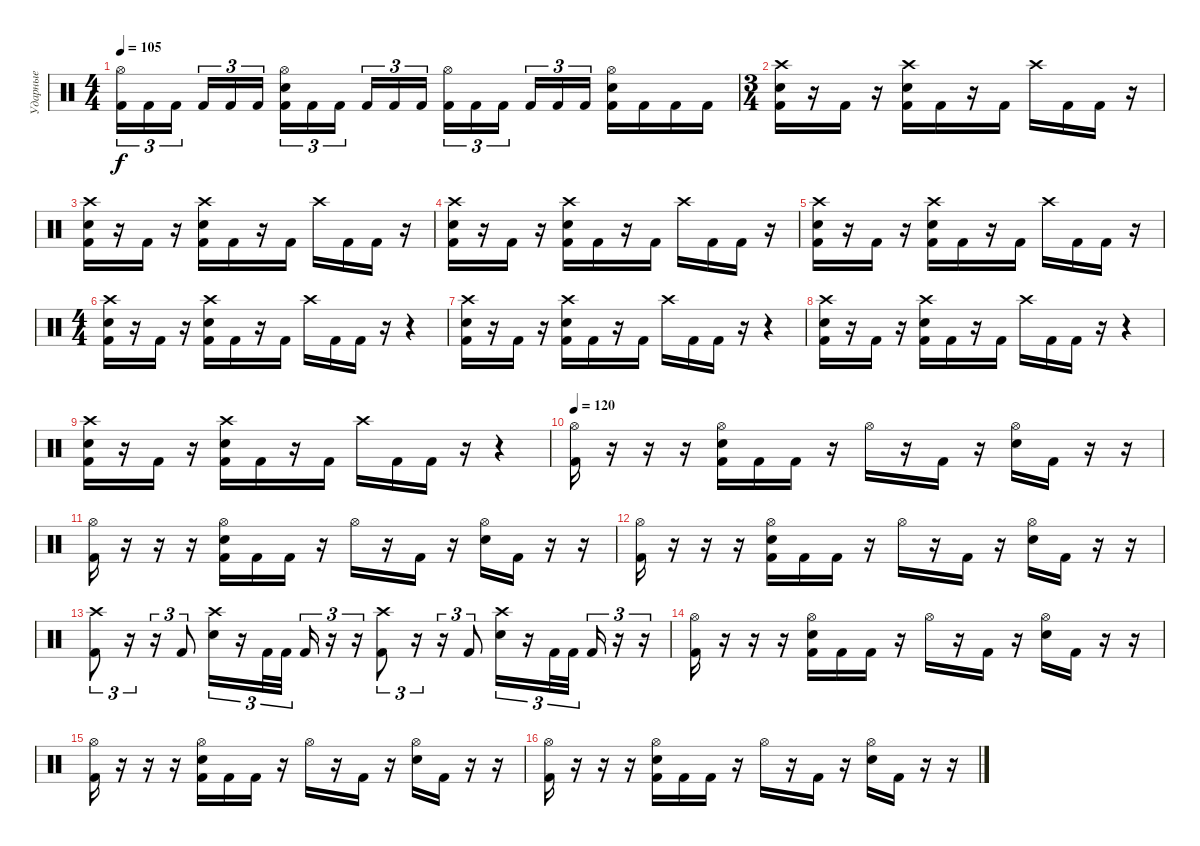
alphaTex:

\track ("Ударные" "Ударные") {instrument percussion}
\staff {score}
\articulation defaults
\ts (4 4)
\tempo 105
\clef neutral
\ks c
("Hi-Hat (open)" "Kick (hit) 2").16{tu (3 2) dy f} "Kick (hit) 2".16{tu (3 2)} "Kick (hit) 2".16{tu (3 2) beam splitsecondary} "Kick (hit) 2".16{tu (3 2)} "Kick (hit) 2".16{tu (3 2)} "Kick (hit) 2".16{tu (3 2)} ("Hi-Hat (open)" "Electric Snare (hit)" "Kick (hit) 2").16{tu (3 2)} "Kick (hit) 2".16{tu (3 2)} "Kick (hit) 2".16{tu (3 2) beam splitsecondary} "Kick (hit) 2".16{tu (3 2)} "Kick (hit) 2".16{tu (3 2)} "Kick (hit) 2".16{tu (3 2)} ("Hi-Hat (open)" "Kick (hit) 2").16{tu (3 2)} "Kick (hit) 2".16{tu (3 2)} "Kick (hit) 2".16{tu (3 2) beam splitsecondary} "Kick (hit) 2".16{tu (3 2)} "Kick (hit) 2".16{tu (3 2)} "Kick (hit) 2".16{tu (3 2)} ("Hi-Hat (open)" "Electric Snare (hit)" "Kick (hit) 2").16 "Kick (hit) 2".16 "Kick (hit) 2".16 "Kick (hit) 2".16 |
\ts (3 4)
("Crash high (hit)" "Electric Snare (hit)" "Kick (hit) 2").16 r.16 "Kick (hit) 2".16 r.16 ("Crash high (hit)" "Electric Snare (hit)" "Kick (hit) 2").16 "Kick (hit) 2".16 r.16 "Kick (hit) 2".16 "Crash high (hit)".16 "Kick (hit) 2".16 "Kick (hit) 2".16 r.16 |
("Crash high (hit)" "Electric Snare (hit)" "Kick (hit) 2").16 r.16 "Kick (hit) 2".16 r.16 ("Crash high (hit)" "Electric Snare (hit)" "Kick (hit) 2").16 "Kick (hit) 2".16 r.16 "Kick (hit) 2".16 "Crash high (hit)".16 "Kick (hit) 2".16 "Kick (hit) 2".16 r.16 |
("Crash high (hit)" "Electric Snare (hit)" "Kick (hit) 2").16 r.16 "Kick (hit) 2".16 r.16 ("Crash high (hit)" "Electric Snare (hit)" "Kick (hit) 2").16 "Kick (hit) 2".16 r.16 "Kick (hit) 2".16 "Crash high (hit)".16 "Kick (hit) 2".16 "Kick (hit) 2".16 r.16 |
("Crash high (hit)" "Electric Snare (hit)" "Kick (hit) 2").16 r.16 "Kick (hit) 2".16 r.16 ("Crash high (hit)" "Electric Snare (hit)" "Kick (hit) 2").16 "Kick (hit) 2".16 r.16 "Kick (hit) 2".16 "Crash high (hit)".16 "Kick (hit) 2".16 "Kick (hit) 2".16 r.16 |
\ts (4 4)
("Crash high (hit)" "Electric Snare (hit)" "Kick (hit) 2").16 r.16 "Kick (hit) 2".16 r.16 ("Crash high (hit)" "Electric Snare (hit)" "Kick (hit) 2").16 "Kick (hit) 2".16 r.16 "Kick (hit) 2".16 "Crash high (hit)".16 "Kick (hit) 2".16 "Kick (hit) 2".16 r.16 r.4 |
("Crash high (hit)" "Electric Snare (hit)" "Kick (hit) 2").16 r.16 "Kick (hit) 2".16 r.16 ("Crash high (hit)" "Electric Snare (hit)" "Kick (hit) 2").16 "Kick (hit) 2".16 r.16 "Kick (hit) 2".16 "Crash high (hit)".16 "Kick (hit) 2".16 "Kick (hit) 2".16 r.16 r.4 |
("Crash high (hit)" "Electric Snare (hit)" "Kick (hit) 2").16 r.16 "Kick (hit) 2".16 r.16 ("Crash high (hit)" "Electric Snare (hit)" "Kick (hit) 2").16 "Kick (hit) 2".16 r.16 "Kick (hit) 2".16 "Crash high (hit)".16 "Kick (hit) 2".16 "Kick (hit) 2".16 r.16 r.4 |
("Crash high (hit)" "Electric Snare (hit)" "Kick (hit) 2").16 r.16 "Kick (hit) 2".16 r.16 ("Crash high (hit)" "Electric Snare (hit)" "Kick (hit) 2").16 "Kick (hit) 2".16 r.16 "Kick (hit) 2".16 "Crash high (hit)".16 "Kick (hit) 2".16 "Kick (hit) 2".16 r.16 r.4 |
\tempo 120
("Hi-Hat (open)" "Kick (hit) 2").16 r.16 r.16 r.16 ("Hi-Hat (open)" "Electric Snare (hit)" "Kick (hit) 2").16 "Kick (hit) 2".16 "Kick (hit) 2".16 r.16 "Hi-Hat (open)".16 r.16 "Kick (hit) 2".16 r.16 ("Hi-Hat (open)" "Electric Snare (hit)").16 "Kick (hit) 2".16 r.16 r.16 |
("Hi-Hat (open)" "Kick (hit) 2").16 r.16 r.16 r.16 ("Hi-Hat (open)" "Electric Snare (hit)" "Kick (hit) 2").16 "Kick (hit) 2".16 "Kick (hit) 2".16 r.16 "Hi-Hat (open)".16 r.16 "Kick (hit) 2".16 r.16 ("Hi-Hat (open)" "Electric Snare (hit)").16 "Kick (hit) 2".16 r.16 r.16 |
("Hi-Hat (open)" "Kick (hit) 2").16 r.16 r.16 r.16 ("Hi-Hat (open)" "Electric Snare (hit)" "Kick (hit) 2").16 "Kick (hit) 2".16 "Kick (hit) 2".16 r.16 "Hi-Hat (open)".16 r.16 "Kick (hit) 2".16 r.16 ("Hi-Hat (open)" "Electric Snare (hit)").16 "Kick (hit) 2".16 r.16 r.16 |
("Crash high (hit)" "Kick (hit) 2").8{tu (3 2)} r.16{tu (3 2)} r.16{tu (3 2)} "Kick (hit) 2".8{tu (3 2)} ("Crash high (hit)" "Electric Snare (hit)").16{tu (3 2)} r.16{tu (3 2)} "Kick (hit) 2".32{tu (3 2)} "Kick (hit) 2".32{tu (3 2) beam splitsecondary} "Kick (hit) 2".16{tu (3 2)} r.16{tu (3 2)} r.16{tu (3 2)} ("Crash high (hit)" "Kick (hit) 2").8{tu (3 2)} r.16{tu (3 2)} r.16{tu (3 2)} "Kick (hit) 2".8{tu (3 2)} ("Crash high (hit)" "Electric Snare (hit)").16{tu (3 2)} r.16{tu (3 2)} "Kick (hit) 2".32{tu (3 2)} "Kick (hit) 2".32{tu (3 2) beam splitsecondary} "Kick (hit) 2".16{tu (3 2)} r.16{tu (3 2)} r.16{tu (3 2)} |
("Hi-Hat (open)" "Kick (hit) 2").16 r.16 r.16 r.16 ("Hi-Hat (open)" "Electric Snare (hit)" "Kick (hit) 2").16 "Kick (hit) 2".16 "Kick (hit) 2".16 r.16 "Hi-Hat (open)".16 r.16 "Kick (hit) 2".16 r.16 ("Hi-Hat (open)" "Electric Snare (hit)").16 "Kick (hit) 2".16 r.16 r.16 |
("Hi-Hat (open)" "Kick (hit) 2").16 r.16 r.16 r.16 ("Hi-Hat (open)" "Electric Snare (hit)" "Kick (hit) 2").16 "Kick (hit) 2".16 "Kick (hit) 2".16 r.16 "Hi-Hat (open)".16 r.16 "Kick (hit) 2".16 r.16 ("Hi-Hat (open)" "Electric Snare (hit)").16 "Kick (hit) 2".16 r.16 r.16 |
("Hi-Hat (open)" "Kick (hit) 2").16 r.16 r.16 r.16 ("Hi-Hat (open)" "Electric Snare (hit)" "Kick (hit) 2").16 "Kick (hit) 2".16 "Kick (hit) 2".16 r.16 "Hi-Hat (open)".16 r.16 "Kick (hit) 2".16 r.16 ("Hi-Hat (open)" "Electric Snare (hit)").16 "Kick (hit) 2".16 r.16 r.16
